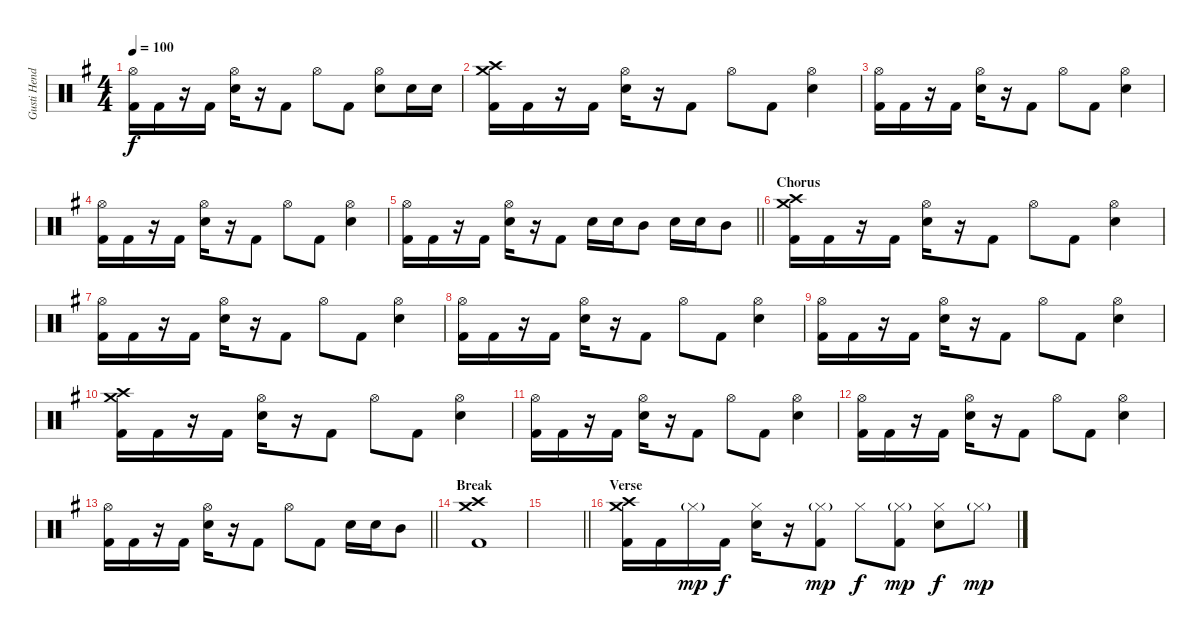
\track ("Gusti Hendy" "Gusti Hend") {instrument percussion}
\staff {score}
\articulation defaults
\ts (4 4)
\tempo 100
\clef neutral
\ks g
("Hi-Hat (open)" "Kick (hit) 2").16{dy f} "Kick (hit) 2".16 r.16 "Kick (hit) 2".16 ("Hi-Hat (open)" "Electric Snare (hit)").16 r.16 "Kick (hit) 2".8 "Hi-Hat (open)".8 "Kick (hit) 2".8 ("Hi-Hat (open)" "Electric Snare (hit)").8 "Electric Snare (hit)".16 "Electric Snare (hit)".16 |
("Crash high (hit)" "Crash medium (hit)" "Kick (hit) 2").16 "Kick (hit) 2".16 r.16 "Kick (hit) 2".16 ("Hi-Hat (open)" "Electric Snare (hit)").16 r.16 "Kick (hit) 2".8 "Hi-Hat (open)".8 "Kick (hit) 2".8 ("Hi-Hat (open)" "Electric Snare (hit)").4 |
("Hi-Hat (open)" "Kick (hit) 2").16 "Kick (hit) 2".16 r.16 "Kick (hit) 2".16 ("Hi-Hat (open)" "Electric Snare (hit)").16 r.16 "Kick (hit) 2".8 "Hi-Hat (open)".8 "Kick (hit) 2".8 ("Hi-Hat (open)" "Electric Snare (hit)").4 |
("Hi-Hat (open)" "Kick (hit) 2").16 "Kick (hit) 2".16 r.16 "Kick (hit) 2".16 ("Hi-Hat (open)" "Electric Snare (hit)").16 r.16 "Kick (hit) 2".8 "Hi-Hat (open)".8 "Kick (hit) 2".8 ("Hi-Hat (open)" "Electric Snare (hit)").4 |
\barLineRight lightlight
("Hi-Hat (open)" "Kick (hit) 2").16 "Kick (hit) 2".16 r.16 "Kick (hit) 2".16 ("Hi-Hat (open)" "Electric Snare (hit)").16 r.16 "Kick (hit) 2".8 "Electric Snare (hit)".16 "Electric Snare (hit)".16 "Mid Tom (hit)".8 "Electric Snare (hit)".16 "Electric Snare (hit)".16 "Mid Tom (hit)".8 |
\section ("" "Chorus")
("Crash high (hit)" "Crash medium (hit)" "Kick (hit) 2").16 "Kick (hit) 2".16 r.16 "Kick (hit) 2".16 ("Hi-Hat (open)" "Electric Snare (hit)").16 r.16 "Kick (hit) 2".8 "Hi-Hat (open)".8 "Kick (hit) 2".8 ("Hi-Hat (open)" "Electric Snare (hit)").4 |
("Hi-Hat (open)" "Kick (hit) 2").16 "Kick (hit) 2".16 r.16 "Kick (hit) 2".16 ("Hi-Hat (open)" "Electric Snare (hit)").16 r.16 "Kick (hit) 2".8 "Hi-Hat (open)".8 "Kick (hit) 2".8 ("Hi-Hat (open)" "Electric Snare (hit)").4 |
("Hi-Hat (open)" "Kick (hit) 2").16 "Kick (hit) 2".16 r.16 "Kick (hit) 2".16 ("Hi-Hat (open)" "Electric Snare (hit)").16 r.16 "Kick (hit) 2".8 "Hi-Hat (open)".8 "Kick (hit) 2".8 ("Hi-Hat (open)" "Electric Snare (hit)").4 |
("Hi-Hat (open)" "Kick (hit) 2").16 "Kick (hit) 2".16 r.16 "Kick (hit) 2".16 ("Hi-Hat (open)" "Electric Snare (hit)").16 r.16 "Kick (hit) 2".8 "Hi-Hat (open)".8 "Kick (hit) 2".8 ("Hi-Hat (open)" "Electric Snare (hit)").4 |
("Crash high (hit)" "Crash medium (hit)" "Kick (hit) 2").16 "Kick (hit) 2".16 r.16 "Kick (hit) 2".16 ("Hi-Hat (open)" "Electric Snare (hit)").16 r.16 "Kick (hit) 2".8 "Hi-Hat (open)".8 "Kick (hit) 2".8 ("Hi-Hat (open)" "Electric Snare (hit)").4 |
("Hi-Hat (open)" "Kick (hit) 2").16 "Kick (hit) 2".16 r.16 "Kick (hit) 2".16 ("Hi-Hat (open)" "Electric Snare (hit)").16 r.16 "Kick (hit) 2".8 "Hi-Hat (open)".8 "Kick (hit) 2".8 ("Hi-Hat (open)" "Electric Snare (hit)").4 |
("Hi-Hat (open)" "Kick (hit) 2").16 "Kick (hit) 2".16 r.16 "Kick (hit) 2".16 ("Hi-Hat (open)" "Electric Snare (hit)").16 r.16 "Kick (hit) 2".8 "Hi-Hat (open)".8 "Kick (hit) 2".8 ("Hi-Hat (open)" "Electric Snare (hit)").4 |
\barLineRight lightlight
("Hi-Hat (open)" "Kick (hit) 2").16 "Kick (hit) 2".16 r.16 "Kick (hit) 2".16 ("Hi-Hat (open)" "Electric Snare (hit)").16 r.16 "Kick (hit) 2".8 "Hi-Hat (open)".8 "Kick (hit) 2".8 "Electric Snare (hit)".16 "Electric Snare (hit)".16 "Mid Tom (hit)".8 |
\section ("" "Break")
("Crash high (hit)" "Crash medium (hit)" "Kick (hit) 2").1 |
\barLineRight lightlight
|
\section ("" "Verse")
("Crash high (hit)" "Crash medium (hit)" "Kick (hit) 2").16 "Kick (hit) 2".16 "Hi-Hat (closed)"{g}.16{dy mp} "Kick (hit) 2".16{dy f} ("Hi-Hat (closed)" "Electric Snare (hit)").16 r.16 ("Hi-Hat (closed)"{g} "Kick (hit) 2").8{dy mp} "Hi-Hat (closed)".8{dy f} ("Hi-Hat (closed)"{g} "Kick (hit) 2").8{dy mp} ("Hi-Hat (closed)" "Electric Snare (hit)").8{dy f} "Hi-Hat (closed)"{g}.8{dy mp}
